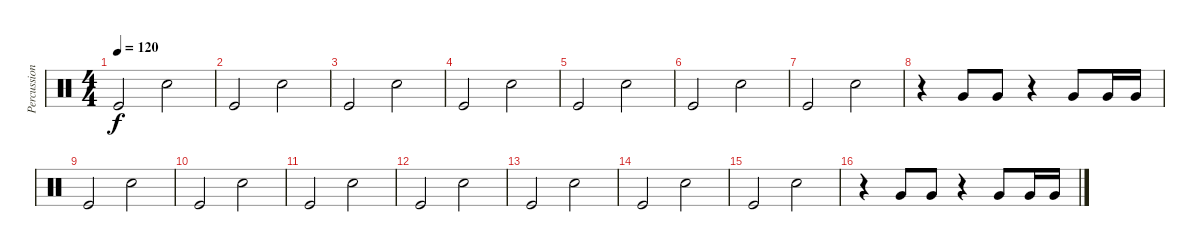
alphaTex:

\track ("Percussion" "Percussion") {instrument percussion}
\staff {score}
\articulation defaults
\ts (4 4)
\tempo 120
\clef neutral
\ks c "Kick (hit)".2{dy f} "Electric Snare (hit)".2
|
"Kick (hit)".2 "Electric Snare (hit)".2 |
"Kick (hit)".2 "Electric Snare (hit)".2 |
"Kick (hit)".2 "Electric Snare (hit)".2 |
"Kick (hit)".2 "Electric Snare (hit)".2 |
"Kick (hit)".2 "Electric Snare (hit)".2 |
"Kick (hit)".2 "Electric Snare (hit)".2 |
r.4 "Very Low Tom (hit)".8 "Very Low Tom (hit)".8 r.4 "Very Low Tom (hit)".8 "Very Low Tom (hit)".16 "Very Low Tom (hit)".16 |
"Kick (hit)".2 "Electric Snare (hit)".2 |
"Kick (hit)".2 "Electric Snare (hit)".2 |
"Kick (hit)".2 "Electric Snare (hit)".2 |
"Kick (hit)".2 "Electric Snare (hit)".2 |
"Kick (hit)".2 "Electric Snare (hit)".2 |
"Kick (hit)".2 "Electric Snare (hit)".2 |
"Kick (hit)".2 "Electric Snare (hit)".2 |
r.4 "Very Low Tom (hit)".8 "Very Low Tom (hit)".8 r.4 "Very Low Tom (hit)".8 "Very Low Tom (hit)".16 "Very Low Tom (hit)".16
